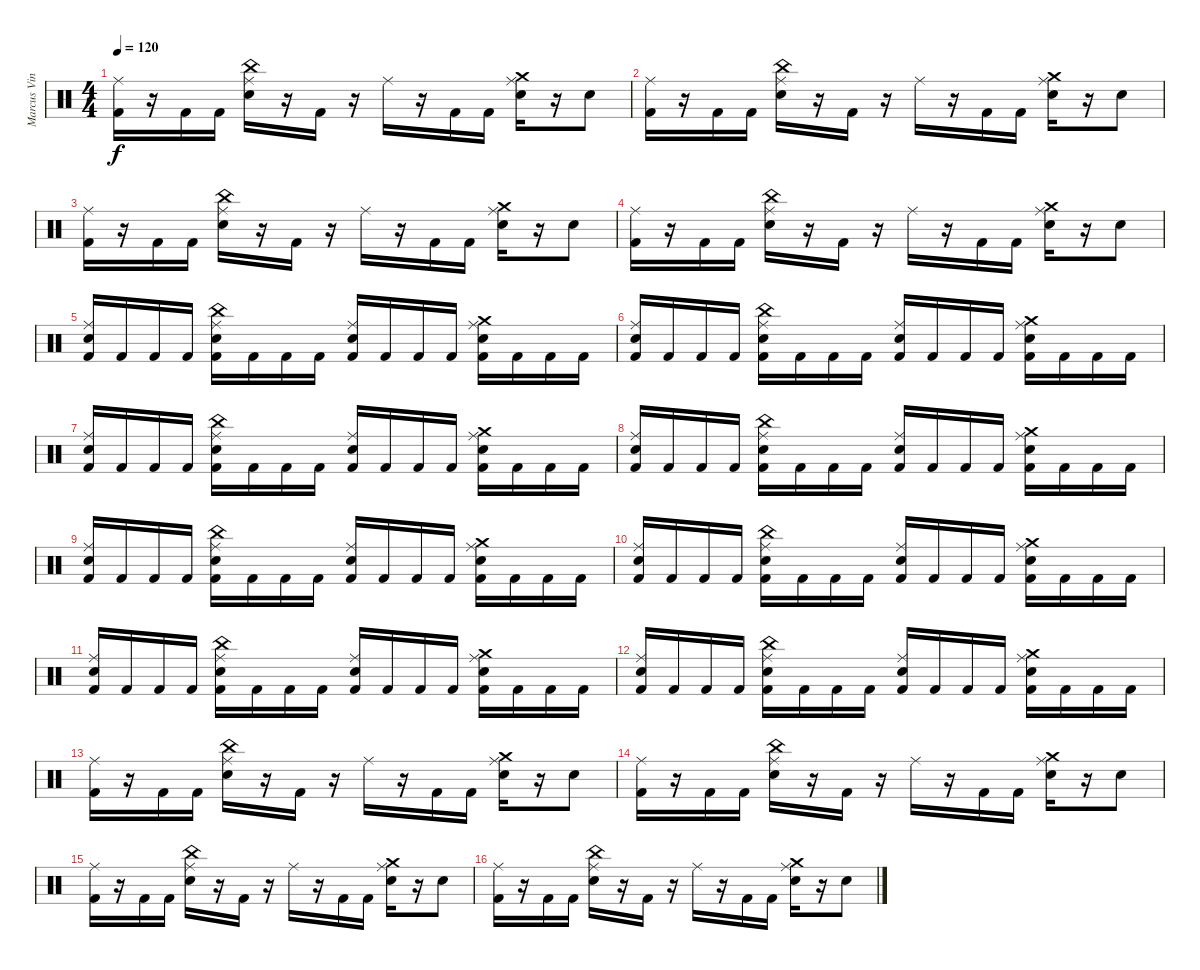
\track ("Marcus Vinicius" "Marcus Vin") {instrument percussion}
\staff {score}
\articulation defaults
\ts (4 4)
\tempo 120
\clef neutral
\ks c
("Kick (hit) 2" "Ride (middle)").16{dy f} r.16 "Kick (hit) 2".16 "Kick (hit) 2".16 ("Electric Snare (hit)" "Ride (middle)" "China (hit)").16 r.16 "Kick (hit) 2".16 r.16 "Ride (middle)".16 r.16 "Kick (hit) 2".16 "Kick (hit) 2".16 ("Electric Snare (hit)" "Ride (middle)" "Crash medium (hit)").16 r.16 "Electric Snare (hit)".8 |
("Kick (hit) 2" "Ride (middle)").16 r.16 "Kick (hit) 2".16 "Kick (hit) 2".16 ("Electric Snare (hit)" "Ride (middle)" "China (hit)").16 r.16 "Kick (hit) 2".16 r.16 "Ride (middle)".16 r.16 "Kick (hit) 2".16 "Kick (hit) 2".16 ("Electric Snare (hit)" "Ride (middle)" "Crash medium (hit)").16 r.16 "Electric Snare (hit)".8 |
("Kick (hit) 2" "Ride (middle)").16 r.16 "Kick (hit) 2".16 "Kick (hit) 2".16 ("Electric Snare (hit)" "Ride (middle)" "China (hit)").16 r.16 "Kick (hit) 2".16 r.16 "Ride (middle)".16 r.16 "Kick (hit) 2".16 "Kick (hit) 2".16 ("Electric Snare (hit)" "Ride (middle)" "Crash medium (hit)").16 r.16 "Electric Snare (hit)".8 |
("Kick (hit) 2" "Ride (middle)").16 r.16 "Kick (hit) 2".16 "Kick (hit) 2".16 ("Electric Snare (hit)" "Ride (middle)" "China (hit)").16 r.16 "Kick (hit) 2".16 r.16 "Ride (middle)".16 r.16 "Kick (hit) 2".16 "Kick (hit) 2".16 ("Electric Snare (hit)" "Ride (middle)" "Crash medium (hit)").16 r.16 "Electric Snare (hit)".8 |
("Kick (hit) 2" "Ride (middle)" "Electric Snare (hit)").16 "Kick (hit) 2".16 "Kick (hit) 2".16 "Kick (hit) 2".16 ("Electric Snare (hit)" "Ride (middle)" "China (hit)" "Kick (hit) 2").16 "Kick (hit) 2".16 "Kick (hit) 2".16 "Kick (hit) 2".16 ("Kick (hit) 2" "Ride (middle)" "Electric Snare (hit)").16 "Kick (hit) 2".16 "Kick (hit) 2".16 "Kick (hit) 2".16 ("Electric Snare (hit)" "Ride (middle)" "Crash medium (hit)" "Kick (hit) 2").16 "Kick (hit) 2".16 "Kick (hit) 2".16 "Kick (hit) 2".16 |
("Kick (hit) 2" "Ride (middle)" "Electric Snare (hit)").16 "Kick (hit) 2".16 "Kick (hit) 2".16 "Kick (hit) 2".16 ("Electric Snare (hit)" "Ride (middle)" "China (hit)" "Kick (hit) 2").16 "Kick (hit) 2".16 "Kick (hit) 2".16 "Kick (hit) 2".16 ("Kick (hit) 2" "Ride (middle)" "Electric Snare (hit)").16 "Kick (hit) 2".16 "Kick (hit) 2".16 "Kick (hit) 2".16 ("Electric Snare (hit)" "Ride (middle)" "Crash medium (hit)" "Kick (hit) 2").16 "Kick (hit) 2".16 "Kick (hit) 2".16 "Kick (hit) 2".16 |
("Kick (hit) 2" "Ride (middle)" "Electric Snare (hit)").16 "Kick (hit) 2".16 "Kick (hit) 2".16 "Kick (hit) 2".16 ("Electric Snare (hit)" "Ride (middle)" "China (hit)" "Kick (hit) 2").16 "Kick (hit) 2".16 "Kick (hit) 2".16 "Kick (hit) 2".16 ("Kick (hit) 2" "Ride (middle)" "Electric Snare (hit)").16 "Kick (hit) 2".16 "Kick (hit) 2".16 "Kick (hit) 2".16 ("Electric Snare (hit)" "Ride (middle)" "Crash medium (hit)" "Kick (hit) 2").16 "Kick (hit) 2".16 "Kick (hit) 2".16 "Kick (hit) 2".16 |
("Kick (hit) 2" "Ride (middle)" "Electric Snare (hit)").16 "Kick (hit) 2".16 "Kick (hit) 2".16 "Kick (hit) 2".16 ("Electric Snare (hit)" "Ride (middle)" "China (hit)" "Kick (hit) 2").16 "Kick (hit) 2".16 "Kick (hit) 2".16 "Kick (hit) 2".16 ("Kick (hit) 2" "Ride (middle)" "Electric Snare (hit)").16 "Kick (hit) 2".16 "Kick (hit) 2".16 "Kick (hit) 2".16 ("Electric Snare (hit)" "Ride (middle)" "Crash medium (hit)" "Kick (hit) 2").16 "Kick (hit) 2".16 "Kick (hit) 2".16 "Kick (hit) 2".16 |
("Kick (hit) 2" "Ride (middle)" "Electric Snare (hit)").16 "Kick (hit) 2".16 "Kick (hit) 2".16 "Kick (hit) 2".16 ("Electric Snare (hit)" "Ride (middle)" "China (hit)" "Kick (hit) 2").16 "Kick (hit) 2".16 "Kick (hit) 2".16 "Kick (hit) 2".16 ("Kick (hit) 2" "Ride (middle)" "Electric Snare (hit)").16 "Kick (hit) 2".16 "Kick (hit) 2".16 "Kick (hit) 2".16 ("Electric Snare (hit)" "Ride (middle)" "Crash medium (hit)" "Kick (hit) 2").16 "Kick (hit) 2".16 "Kick (hit) 2".16 "Kick (hit) 2".16 |
("Kick (hit) 2" "Ride (middle)" "Electric Snare (hit)").16 "Kick (hit) 2".16 "Kick (hit) 2".16 "Kick (hit) 2".16 ("Electric Snare (hit)" "Ride (middle)" "China (hit)" "Kick (hit) 2").16 "Kick (hit) 2".16 "Kick (hit) 2".16 "Kick (hit) 2".16 ("Kick (hit) 2" "Ride (middle)" "Electric Snare (hit)").16 "Kick (hit) 2".16 "Kick (hit) 2".16 "Kick (hit) 2".16 ("Electric Snare (hit)" "Ride (middle)" "Crash medium (hit)" "Kick (hit) 2").16 "Kick (hit) 2".16 "Kick (hit) 2".16 "Kick (hit) 2".16 |
("Kick (hit) 2" "Ride (middle)" "Electric Snare (hit)").16 "Kick (hit) 2".16 "Kick (hit) 2".16 "Kick (hit) 2".16 ("Electric Snare (hit)" "Ride (middle)" "China (hit)" "Kick (hit) 2").16 "Kick (hit) 2".16 "Kick (hit) 2".16 "Kick (hit) 2".16 ("Kick (hit) 2" "Ride (middle)" "Electric Snare (hit)").16 "Kick (hit) 2".16 "Kick (hit) 2".16 "Kick (hit) 2".16 ("Electric Snare (hit)" "Ride (middle)" "Crash medium (hit)" "Kick (hit) 2").16 "Kick (hit) 2".16 "Kick (hit) 2".16 "Kick (hit) 2".16 |
("Kick (hit) 2" "Ride (middle)" "Electric Snare (hit)").16 "Kick (hit) 2".16 "Kick (hit) 2".16 "Kick (hit) 2".16 ("Electric Snare (hit)" "Ride (middle)" "China (hit)" "Kick (hit) 2").16 "Kick (hit) 2".16 "Kick (hit) 2".16 "Kick (hit) 2".16 ("Kick (hit) 2" "Ride (middle)" "Electric Snare (hit)").16 "Kick (hit) 2".16 "Kick (hit) 2".16 "Kick (hit) 2".16 ("Electric Snare (hit)" "Ride (middle)" "Crash medium (hit)" "Kick (hit) 2").16 "Kick (hit) 2".16 "Kick (hit) 2".16 "Kick (hit) 2".16 |
("Kick (hit) 2" "Ride (middle)").16 r.16 "Kick (hit) 2".16 "Kick (hit) 2".16 ("Electric Snare (hit)" "Ride (middle)" "China (hit)").16 r.16 "Kick (hit) 2".16 r.16 "Ride (middle)".16 r.16 "Kick (hit) 2".16 "Kick (hit) 2".16 ("Electric Snare (hit)" "Ride (middle)" "Crash medium (hit)").16 r.16 "Electric Snare (hit)".8 |
("Kick (hit) 2" "Ride (middle)").16 r.16 "Kick (hit) 2".16 "Kick (hit) 2".16 ("Electric Snare (hit)" "Ride (middle)" "China (hit)").16 r.16 "Kick (hit) 2".16 r.16 "Ride (middle)".16 r.16 "Kick (hit) 2".16 "Kick (hit) 2".16 ("Electric Snare (hit)" "Ride (middle)" "Crash medium (hit)").16 r.16 "Electric Snare (hit)".8 |
("Kick (hit) 2" "Ride (middle)").16 r.16 "Kick (hit) 2".16 "Kick (hit) 2".16 ("Electric Snare (hit)" "Ride (middle)" "China (hit)").16 r.16 "Kick (hit) 2".16 r.16 "Ride (middle)".16 r.16 "Kick (hit) 2".16 "Kick (hit) 2".16 ("Electric Snare (hit)" "Ride (middle)" "Crash medium (hit)").16 r.16 "Electric Snare (hit)".8 |
("Kick (hit) 2" "Ride (middle)").16 r.16 "Kick (hit) 2".16 "Kick (hit) 2".16 ("Electric Snare (hit)" "Ride (middle)" "China (hit)").16 r.16 "Kick (hit) 2".16 r.16 "Ride (middle)".16 r.16 "Kick (hit) 2".16 "Kick (hit) 2".16 ("Electric Snare (hit)" "Ride (middle)" "Crash medium (hit)").16 r.16 "Electric Snare (hit)".8
